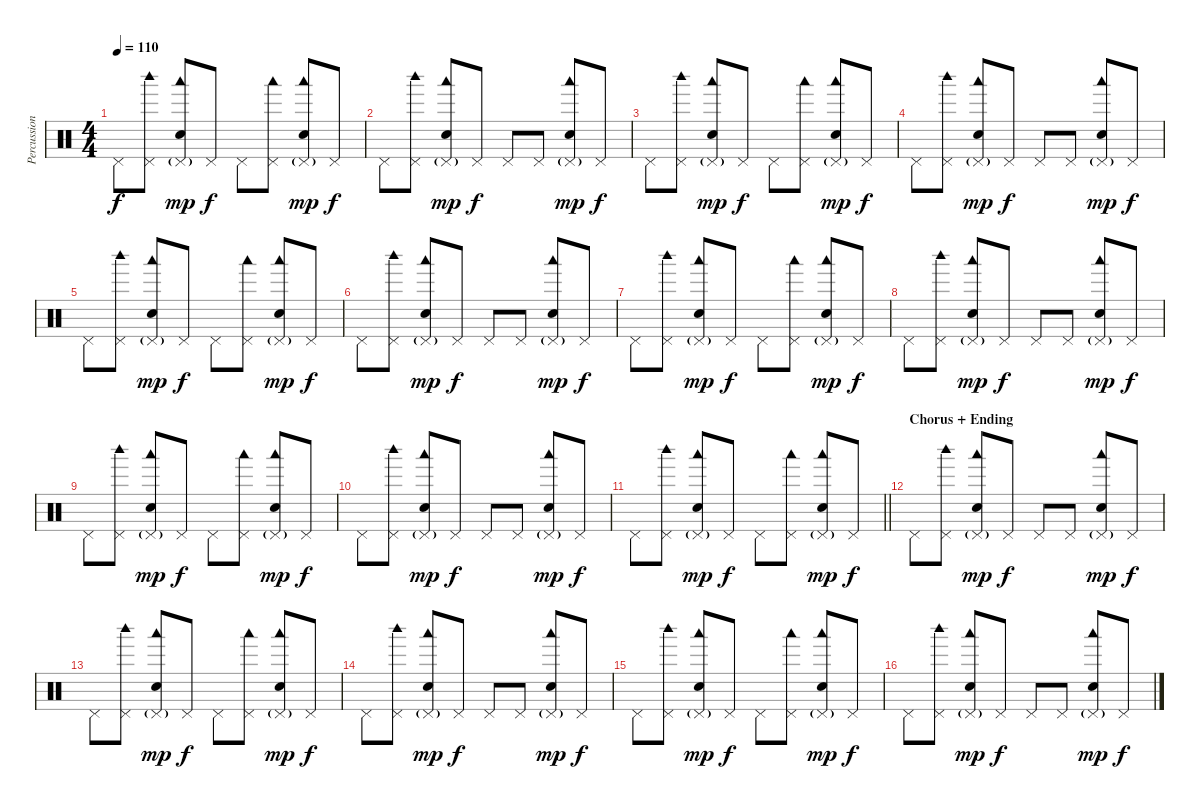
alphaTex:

\track ("Percussion" "Percussion") {instrument percussion}
\staff {score}
\articulation defaults
\ts (4 4)
\tempo 110
\clef neutral
\ks c "Pedal Hi-Hat (hit)".8{dy f}
("Woodblock high (hit)" "Pedal Hi-Hat (hit)").8 ("Woodblock low (hit)" "Pedal Hi-Hat (hit)"{g} "Electric Snare (hit)").8{dy mp} "Pedal Hi-Hat (hit)".8{dy f} "Pedal Hi-Hat (hit)".8 ("Woodblock low (hit)" "Pedal Hi-Hat (hit)").8 ("Woodblock low (hit)" "Pedal Hi-Hat (hit)"{g} "Electric Snare (hit)").8{dy mp} "Pedal Hi-Hat (hit)".8{dy f} |
"Pedal Hi-Hat (hit)".8 ("Woodblock high (hit)" "Pedal Hi-Hat (hit)").8 ("Woodblock low (hit)" "Pedal Hi-Hat (hit)"{g} "Electric Snare (hit)").8{dy mp} "Pedal Hi-Hat (hit)".8{dy f} "Pedal Hi-Hat (hit)".8 "Pedal Hi-Hat (hit)".8 ("Woodblock low (hit)" "Pedal Hi-Hat (hit)"{g} "Electric Snare (hit)").8{dy mp} "Pedal Hi-Hat (hit)".8{dy f} |
"Pedal Hi-Hat (hit)".8 ("Woodblock high (hit)" "Pedal Hi-Hat (hit)").8 ("Woodblock low (hit)" "Pedal Hi-Hat (hit)"{g} "Electric Snare (hit)").8{dy mp} "Pedal Hi-Hat (hit)".8{dy f} "Pedal Hi-Hat (hit)".8 ("Woodblock low (hit)" "Pedal Hi-Hat (hit)").8 ("Woodblock low (hit)" "Pedal Hi-Hat (hit)"{g} "Electric Snare (hit)").8{dy mp} "Pedal Hi-Hat (hit)".8{dy f} |
"Pedal Hi-Hat (hit)".8 ("Woodblock high (hit)" "Pedal Hi-Hat (hit)").8 ("Woodblock low (hit)" "Pedal Hi-Hat (hit)"{g} "Electric Snare (hit)").8{dy mp} "Pedal Hi-Hat (hit)".8{dy f} "Pedal Hi-Hat (hit)".8 "Pedal Hi-Hat (hit)".8 ("Woodblock low (hit)" "Pedal Hi-Hat (hit)"{g} "Electric Snare (hit)").8{dy mp} "Pedal Hi-Hat (hit)".8{dy f} |
"Pedal Hi-Hat (hit)".8 ("Woodblock high (hit)" "Pedal Hi-Hat (hit)").8 ("Woodblock low (hit)" "Pedal Hi-Hat (hit)"{g} "Electric Snare (hit)").8{dy mp} "Pedal Hi-Hat (hit)".8{dy f} "Pedal Hi-Hat (hit)".8 ("Woodblock low (hit)" "Pedal Hi-Hat (hit)").8 ("Woodblock low (hit)" "Pedal Hi-Hat (hit)"{g} "Electric Snare (hit)").8{dy mp} "Pedal Hi-Hat (hit)".8{dy f} |
"Pedal Hi-Hat (hit)".8 ("Woodblock high (hit)" "Pedal Hi-Hat (hit)").8 ("Woodblock low (hit)" "Pedal Hi-Hat (hit)"{g} "Electric Snare (hit)").8{dy mp} "Pedal Hi-Hat (hit)".8{dy f} "Pedal Hi-Hat (hit)".8 "Pedal Hi-Hat (hit)".8 ("Woodblock low (hit)" "Pedal Hi-Hat (hit)"{g} "Electric Snare (hit)").8{dy mp} "Pedal Hi-Hat (hit)".8{dy f} |
"Pedal Hi-Hat (hit)".8 ("Woodblock high (hit)" "Pedal Hi-Hat (hit)").8 ("Woodblock low (hit)" "Pedal Hi-Hat (hit)"{g} "Electric Snare (hit)").8{dy mp} "Pedal Hi-Hat (hit)".8{dy f} "Pedal Hi-Hat (hit)".8 ("Woodblock low (hit)" "Pedal Hi-Hat (hit)").8 ("Woodblock low (hit)" "Pedal Hi-Hat (hit)"{g} "Electric Snare (hit)").8{dy mp} "Pedal Hi-Hat (hit)".8{dy f} |
"Pedal Hi-Hat (hit)".8 ("Woodblock high (hit)" "Pedal Hi-Hat (hit)").8 ("Woodblock low (hit)" "Pedal Hi-Hat (hit)"{g} "Electric Snare (hit)").8{dy mp} "Pedal Hi-Hat (hit)".8{dy f} "Pedal Hi-Hat (hit)".8 "Pedal Hi-Hat (hit)".8 ("Woodblock low (hit)" "Pedal Hi-Hat (hit)"{g} "Electric Snare (hit)").8{dy mp} "Pedal Hi-Hat (hit)".8{dy f} |
"Pedal Hi-Hat (hit)".8 ("Woodblock high (hit)" "Pedal Hi-Hat (hit)").8 ("Woodblock low (hit)" "Pedal Hi-Hat (hit)"{g} "Electric Snare (hit)").8{dy mp} "Pedal Hi-Hat (hit)".8{dy f} "Pedal Hi-Hat (hit)".8 ("Woodblock low (hit)" "Pedal Hi-Hat (hit)").8 ("Woodblock low (hit)" "Pedal Hi-Hat (hit)"{g} "Electric Snare (hit)").8{dy mp} "Pedal Hi-Hat (hit)".8{dy f} |
"Pedal Hi-Hat (hit)".8 ("Woodblock high (hit)" "Pedal Hi-Hat (hit)").8 ("Woodblock low (hit)" "Pedal Hi-Hat (hit)"{g} "Electric Snare (hit)").8{dy mp} "Pedal Hi-Hat (hit)".8{dy f} "Pedal Hi-Hat (hit)".8 "Pedal Hi-Hat (hit)".8 ("Woodblock low (hit)" "Pedal Hi-Hat (hit)"{g} "Electric Snare (hit)").8{dy mp} "Pedal Hi-Hat (hit)".8{dy f} |
\barLineRight lightlight "Pedal Hi-Hat (hit)".8
("Woodblock high (hit)" "Pedal Hi-Hat (hit)").8 ("Woodblock low (hit)" "Pedal Hi-Hat (hit)"{g} "Electric Snare (hit)").8{dy mp} "Pedal Hi-Hat (hit)".8{dy f} "Pedal Hi-Hat (hit)".8 ("Woodblock low (hit)" "Pedal Hi-Hat (hit)").8 ("Woodblock low (hit)" "Pedal Hi-Hat (hit)"{g} "Electric Snare (hit)").8{dy mp} "Pedal Hi-Hat (hit)".8{dy f} |
\section ("" "Chorus + Ending")
"Pedal Hi-Hat (hit)".8 ("Woodblock high (hit)" "Pedal Hi-Hat (hit)").8 ("Woodblock low (hit)" "Pedal Hi-Hat (hit)"{g} "Electric Snare (hit)").8{dy mp} "Pedal Hi-Hat (hit)".8{dy f} "Pedal Hi-Hat (hit)".8 "Pedal Hi-Hat (hit)".8 ("Woodblock low (hit)" "Pedal Hi-Hat (hit)"{g} "Electric Snare (hit)").8{dy mp} "Pedal Hi-Hat (hit)".8{dy f} |
"Pedal Hi-Hat (hit)".8 ("Woodblock high (hit)" "Pedal Hi-Hat (hit)").8 ("Woodblock low (hit)" "Pedal Hi-Hat (hit)"{g} "Electric Snare (hit)").8{dy mp} "Pedal Hi-Hat (hit)".8{dy f} "Pedal Hi-Hat (hit)".8 ("Woodblock low (hit)" "Pedal Hi-Hat (hit)").8 ("Woodblock low (hit)" "Pedal Hi-Hat (hit)"{g} "Electric Snare (hit)").8{dy mp} "Pedal Hi-Hat (hit)".8{dy f} |
"Pedal Hi-Hat (hit)".8 ("Woodblock high (hit)" "Pedal Hi-Hat (hit)").8 ("Woodblock low (hit)" "Pedal Hi-Hat (hit)"{g} "Electric Snare (hit)").8{dy mp} "Pedal Hi-Hat (hit)".8{dy f} "Pedal Hi-Hat (hit)".8 "Pedal Hi-Hat (hit)".8 ("Woodblock low (hit)" "Pedal Hi-Hat (hit)"{g} "Electric Snare (hit)").8{dy mp} "Pedal Hi-Hat (hit)".8{dy f} |
"Pedal Hi-Hat (hit)".8 ("Woodblock high (hit)" "Pedal Hi-Hat (hit)").8 ("Woodblock low (hit)" "Pedal Hi-Hat (hit)"{g} "Electric Snare (hit)").8{dy mp} "Pedal Hi-Hat (hit)".8{dy f} "Pedal Hi-Hat (hit)".8 ("Woodblock low (hit)" "Pedal Hi-Hat (hit)").8 ("Woodblock low (hit)" "Pedal Hi-Hat (hit)"{g} "Electric Snare (hit)").8{dy mp} "Pedal Hi-Hat (hit)".8{dy f} |
"Pedal Hi-Hat (hit)".8 ("Woodblock high (hit)" "Pedal Hi-Hat (hit)").8 ("Woodblock low (hit)" "Pedal Hi-Hat (hit)"{g} "Electric Snare (hit)").8{dy mp} "Pedal Hi-Hat (hit)".8{dy f} "Pedal Hi-Hat (hit)".8 "Pedal Hi-Hat (hit)".8 ("Woodblock low (hit)" "Pedal Hi-Hat (hit)"{g} "Electric Snare (hit)").8{dy mp} "Pedal Hi-Hat (hit)".8{dy f}
